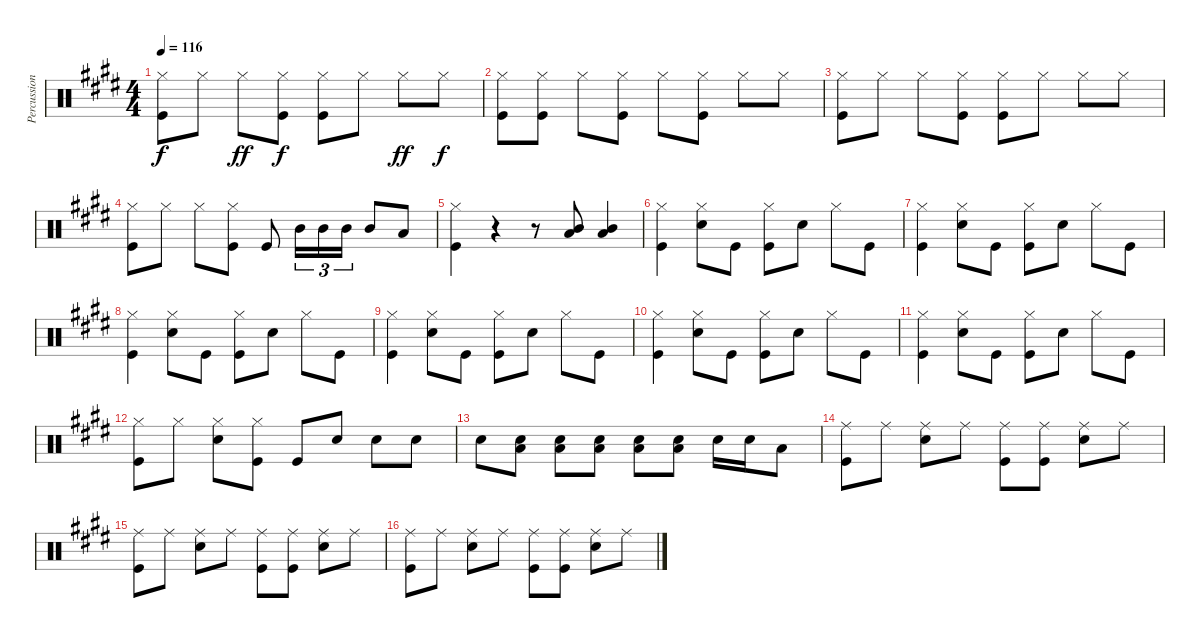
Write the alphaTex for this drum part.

\track ("Percussion" "Percussion") {instrument percussion}
\staff {score}
\articulation defaults
\ts (4 4)
\tempo 116
\clef neutral
\ks e
("Hi-Hat (closed)" "Kick (hit)").8{dy f} "Hi-Hat (closed)".8 "Hi-Hat (closed)".8{dy ff} ("Hi-Hat (closed)" "Kick (hit)").8{dy f} ("Hi-Hat (closed)" "Kick (hit)").8 "Hi-Hat (closed)".8 "Hi-Hat (closed)".8{dy ff} "Hi-Hat (closed)".8{dy f} |
("Hi-Hat (closed)" "Kick (hit)").8 ("Hi-Hat (closed)" "Kick (hit)").8 "Hi-Hat (closed)".8 ("Hi-Hat (closed)" "Kick (hit)").8 "Hi-Hat (closed)".8 ("Hi-Hat (closed)" "Kick (hit)").8 "Hi-Hat (closed)".8 "Hi-Hat (closed)".8 |
("Hi-Hat (closed)" "Kick (hit)").8 "Hi-Hat (closed)".8 "Hi-Hat (closed)".8 ("Hi-Hat (closed)" "Kick (hit)").8 ("Hi-Hat (closed)" "Kick (hit)").8 "Hi-Hat (closed)".8 "Hi-Hat (closed)".8 "Hi-Hat (closed)".8 |
("Hi-Hat (closed)" "Kick (hit)").8 "Hi-Hat (closed)".8 "Hi-Hat (closed)".8 ("Hi-Hat (closed)" "Kick (hit)").8 "Kick (hit)".8 "Mid Tom (hit)".16{tu (3 2)} "Mid Tom (hit)".16{tu (3 2)} "Mid Tom (hit)".16{tu (3 2)} "Mid Tom (hit)".8 "Low Tom (hit)".8 |
("Hi-Hat (closed)" "Kick (hit)").4 r.4 r.8 ("Low Tom (hit)" "Mid Tom (hit)").8 ("Low Tom (hit)" "Mid Tom (hit)").4 |
("Hi-Hat (closed)" "Kick (hit)").4 ("Hi-Hat (closed)" "Snare (hit) 2").8 "Kick (hit)".8 ("Hi-Hat (closed)" "Kick (hit)").8 "Snare (hit) 2".8 "Hi-Hat (closed)".8 "Kick (hit)".8 |
("Hi-Hat (closed)" "Kick (hit)").4 ("Hi-Hat (closed)" "Snare (hit) 2").8 "Kick (hit)".8 ("Hi-Hat (closed)" "Kick (hit)").8 "Snare (hit) 2".8 "Hi-Hat (closed)".8 "Kick (hit)".8 |
("Hi-Hat (closed)" "Kick (hit)").4 ("Hi-Hat (closed)" "Snare (hit) 2").8 "Kick (hit)".8 ("Hi-Hat (closed)" "Kick (hit)").8 "Snare (hit) 2".8 "Hi-Hat (closed)".8 "Kick (hit)".8 |
("Hi-Hat (closed)" "Kick (hit)").4 ("Hi-Hat (closed)" "Snare (hit) 2").8 "Kick (hit)".8 ("Hi-Hat (closed)" "Kick (hit)").8 "Snare (hit) 2".8 "Hi-Hat (closed)".8 "Kick (hit)".8 |
("Hi-Hat (closed)" "Kick (hit)").4 ("Hi-Hat (closed)" "Snare (hit) 2").8 "Kick (hit)".8 ("Hi-Hat (closed)" "Kick (hit)").8 "Snare (hit) 2".8 "Hi-Hat (closed)".8 "Kick (hit)".8 |
("Hi-Hat (closed)" "Kick (hit)").4 ("Hi-Hat (closed)" "Snare (hit) 2").8 "Kick (hit)".8 ("Hi-Hat (closed)" "Kick (hit)").8 "Snare (hit) 2".8 "Hi-Hat (closed)".8 "Kick (hit)".8 |
("Hi-Hat (closed)" "Kick (hit)").8 "Hi-Hat (closed)".8 ("Hi-Hat (closed)" "Snare (hit) 2").8 ("Hi-Hat (closed)" "Kick (hit)").8 "Kick (hit)".8 "Snare (hit) 2".8 "Snare (hit) 2".8 "Snare (hit) 2".8 |
"Snare (hit) 2".8 ("Low Tom (hit)" "Snare (hit) 2").8 ("Low Tom (hit)" "Snare (hit) 2").8 ("Low Tom (hit)" "Snare (hit) 2").8 ("Low Tom (hit)" "Snare (hit) 2").8 ("Low Tom (hit)" "Snare (hit) 2").8 "Snare (hit) 2".16 "Snare (hit) 2".16 "Low Tom (hit)".8 |
("Ride (middle)" "Kick (hit)").8 "Ride (middle)".8 ("Ride (middle)" "Snare (hit) 2").8 "Ride (middle)".8 ("Ride (middle)" "Kick (hit)").8 ("Ride (middle)" "Kick (hit)").8 ("Ride (middle)" "Snare (hit) 2").8 "Ride (middle)".8 |
("Ride (middle)" "Kick (hit)").8 "Ride (middle)".8 ("Ride (middle)" "Snare (hit) 2").8 "Ride (middle)".8 ("Ride (middle)" "Kick (hit)").8 ("Ride (middle)" "Kick (hit)").8 ("Ride (middle)" "Snare (hit) 2").8 "Ride (middle)".8 |
("Ride (middle)" "Kick (hit)").8 "Ride (middle)".8 ("Ride (middle)" "Snare (hit) 2").8 "Ride (middle)".8 ("Ride (middle)" "Kick (hit)").8 ("Ride (middle)" "Kick (hit)").8 ("Ride (middle)" "Snare (hit) 2").8 "Ride (middle)".8
